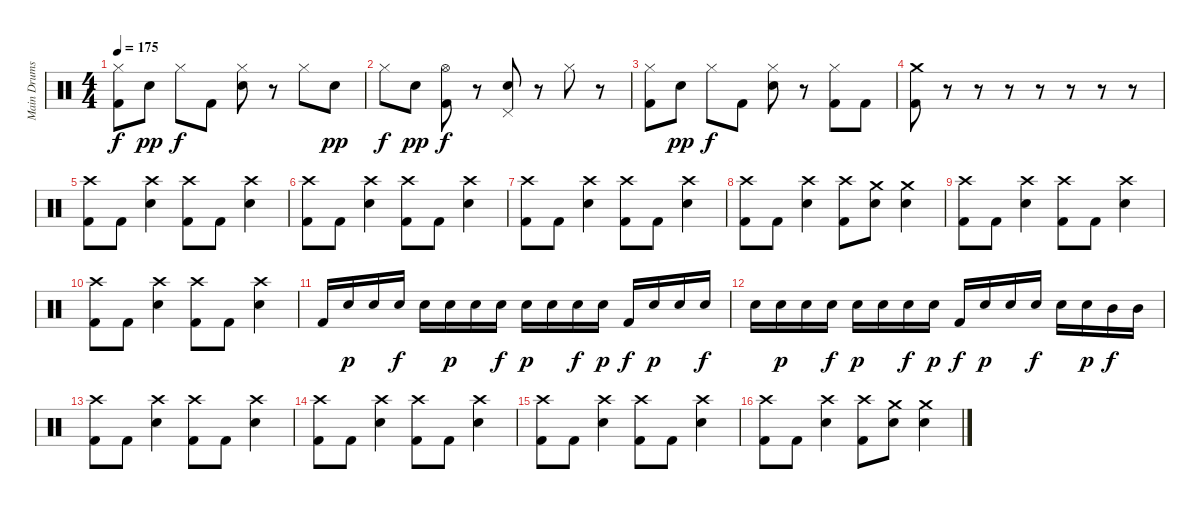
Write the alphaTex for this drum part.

\track ("Main Drums" "Main Drums") {instrument percussion}
\staff {score}
\articulation defaults
\ts (4 4)
\tempo 175
\clef neutral
\ks c
("Hi-Hat (closed)" "Kick (hit) 2").8{dy f} "Electric Snare (hit)".8{dy pp} "Hi-Hat (closed)".8{dy f} "Kick (hit) 2".8 ("Hi-Hat (closed)" "Electric Snare (hit)").8 r.8 "Hi-Hat (closed)".8 "Electric Snare (hit)".8{dy pp} |
"Hi-Hat (closed)".8{dy f} "Electric Snare (hit)".8{dy pp} ("Hi-Hat (open)" "Kick (hit) 2").8{dy f} r.8 ("Pedal Hi-Hat (hit)" "Electric Snare (hit)").8 r.8 "Hi-Hat (closed)".8 r.8 |
("Hi-Hat (closed)" "Kick (hit) 2").8 "Electric Snare (hit)".8{dy pp} "Hi-Hat (closed)".8{dy f} "Kick (hit) 2".8 ("Hi-Hat (closed)" "Electric Snare (hit)").8 r.8 ("Hi-Hat (closed)" "Kick (hit) 2").8 "Kick (hit) 2".8 |
("Crash medium (hit)" "Kick (hit) 2").8 r.8 r.8 r.8 r.8 r.8 r.8 r.8 |
("Crash high (hit)" "Kick (hit) 2").8 "Kick (hit) 2".8 ("Crash high (hit)" "Electric Snare (hit)").4 ("Crash high (hit)" "Kick (hit) 2").8 "Kick (hit) 2".8 ("Crash high (hit)" "Electric Snare (hit)").4 |
("Crash high (hit)" "Kick (hit) 2").8 "Kick (hit) 2".8 ("Crash high (hit)" "Electric Snare (hit)").4 ("Crash high (hit)" "Kick (hit) 2").8 "Kick (hit) 2".8 ("Crash high (hit)" "Electric Snare (hit)").4 |
("Crash high (hit)" "Kick (hit) 2").8 "Kick (hit) 2".8 ("Crash high (hit)" "Electric Snare (hit)").4 ("Crash high (hit)" "Kick (hit) 2").8 "Kick (hit) 2".8 ("Crash high (hit)" "Electric Snare (hit)").4 |
("Crash high (hit)" "Kick (hit) 2").8 "Kick (hit) 2".8 ("Crash high (hit)" "Electric Snare (hit)").4 ("Crash high (hit)" "Kick (hit) 2").8 ("Crash medium (hit)" "Electric Snare (hit)").8 ("Crash medium (hit)" "Electric Snare (hit)").4 |
("Crash high (hit)" "Kick (hit) 2").8 "Kick (hit) 2".8 ("Crash high (hit)" "Electric Snare (hit)").4 ("Crash high (hit)" "Kick (hit) 2").8 "Kick (hit) 2".8 ("Crash high (hit)" "Electric Snare (hit)").4 |
("Crash high (hit)" "Kick (hit) 2").8 "Kick (hit) 2".8 ("Crash high (hit)" "Electric Snare (hit)").4 ("Crash high (hit)" "Kick (hit) 2").8 "Kick (hit) 2".8 ("Crash high (hit)" "Electric Snare (hit)").4 |
"Kick (hit) 2".16 "Electric Snare (hit)".16{dy p} "Electric Snare (hit)".16 "Electric Snare (hit)".16{dy f} "Electric Snare (hit)".16 "Electric Snare (hit)".16{dy p} "Electric Snare (hit)".16 "Electric Snare (hit)".16{dy f} "Electric Snare (hit)".16{dy p} "Electric Snare (hit)".16 "Electric Snare (hit)".16{dy f} "Electric Snare (hit)".16{dy p} "Kick (hit) 2".16{dy f} "Electric Snare (hit)".16{dy p} "Electric Snare (hit)".16 "Electric Snare (hit)".16{dy f} |
"Electric Snare (hit)".16 "Electric Snare (hit)".16{dy p} "Electric Snare (hit)".16 "Electric Snare (hit)".16{dy f} "Electric Snare (hit)".16{dy p} "Electric Snare (hit)".16 "Electric Snare (hit)".16{dy f} "Electric Snare (hit)".16{dy p} "Kick (hit) 2".16{dy f} "Electric Snare (hit)".16{dy p} "Electric Snare (hit)".16 "Electric Snare (hit)".16{dy f} "Electric Snare (hit)".16 "Electric Snare (hit)".16{dy p} "Mid Tom (hit)".16{dy f} "Mid Tom (hit)".16 |
("Crash high (hit)" "Kick (hit) 2").8 "Kick (hit) 2".8 ("Crash high (hit)" "Electric Snare (hit)").4 ("Crash high (hit)" "Kick (hit) 2").8 "Kick (hit) 2".8 ("Crash high (hit)" "Electric Snare (hit)").4 |
("Crash high (hit)" "Kick (hit) 2").8 "Kick (hit) 2".8 ("Crash high (hit)" "Electric Snare (hit)").4 ("Crash high (hit)" "Kick (hit) 2").8 "Kick (hit) 2".8 ("Crash high (hit)" "Electric Snare (hit)").4 |
("Crash high (hit)" "Kick (hit) 2").8 "Kick (hit) 2".8 ("Crash high (hit)" "Electric Snare (hit)").4 ("Crash high (hit)" "Kick (hit) 2").8 "Kick (hit) 2".8 ("Crash high (hit)" "Electric Snare (hit)").4 |
("Crash high (hit)" "Kick (hit) 2").8 "Kick (hit) 2".8 ("Crash high (hit)" "Electric Snare (hit)").4 ("Crash high (hit)" "Kick (hit) 2").8 ("Crash medium (hit)" "Electric Snare (hit)").8 ("Crash medium (hit)" "Electric Snare (hit)").4
